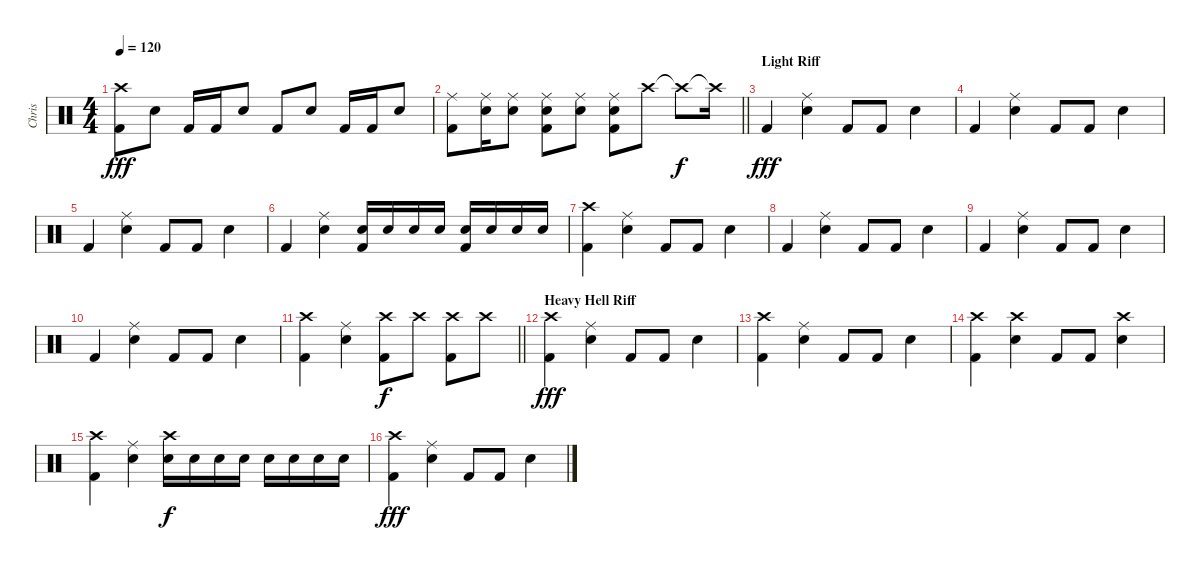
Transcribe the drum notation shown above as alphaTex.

\track ("Chris" "Chris") {instrument percussion}
\staff {score}
\articulation defaults
\ts (4 4)
\tempo 120
\clef neutral
\ks c
("Kick (hit) 2" "Crash high (hit)").8{dy fff} "Electric Snare (hit)".8 "Kick (hit) 2".16 "Kick (hit) 2".16 "Electric Snare (hit)".8 "Kick (hit) 2".8 "Electric Snare (hit)".8 "Kick (hit) 2".16 "Kick (hit) 2".16 "Electric Snare (hit)".8 |
\barLineRight lightlight
("Kick (hit) 2" "Ride (middle)").8 ("Electric Snare (hit)" "Ride (middle)").16 ("Electric Snare (hit)" "Ride (middle)").8 ("Electric Snare (hit)" "Ride (middle)" "Kick (hit) 2").8 ("Electric Snare (hit)" "Ride (middle)").8 ("Electric Snare (hit)" "Ride (middle)" "Kick (hit) 2").8 "Crash high (hit)".8 "Crash high (hit)"{t}.8{dy f} "Crash high (hit)"{t}.16 |
\section ("" "Light Riff")
"Kick (hit) 2".4{dy fff} ("Ride (middle)" "Electric Snare (hit)").4 "Kick (hit) 2".8 "Kick (hit) 2".8 "Electric Snare (hit)".4 |
"Kick (hit) 2".4 ("Ride (middle)" "Electric Snare (hit)").4 "Kick (hit) 2".8 "Kick (hit) 2".8 "Electric Snare (hit)".4 |
"Kick (hit) 2".4 ("Ride (middle)" "Electric Snare (hit)").4 "Kick (hit) 2".8 "Kick (hit) 2".8 "Electric Snare (hit)".4 |
"Kick (hit) 2".4 ("Ride (middle)" "Electric Snare (hit)").4 ("Kick (hit) 2" "Electric Snare (hit)").16 "Electric Snare (hit)".16 "Electric Snare (hit)".16 "Electric Snare (hit)".16 ("Electric Snare (hit)" "Kick (hit) 2").16 "Electric Snare (hit)".16 "Electric Snare (hit)".16 "Electric Snare (hit)".16 |
("Crash high (hit)" "Kick (hit) 2").4 ("Ride (middle)" "Electric Snare (hit)").4 "Kick (hit) 2".8 "Kick (hit) 2".8 "Electric Snare (hit)".4 |
"Kick (hit) 2".4 ("Ride (middle)" "Electric Snare (hit)").4 "Kick (hit) 2".8 "Kick (hit) 2".8 "Electric Snare (hit)".4 |
"Kick (hit) 2".4 ("Ride (middle)" "Electric Snare (hit)").4 "Kick (hit) 2".8 "Kick (hit) 2".8 "Electric Snare (hit)".4 |
"Kick (hit) 2".4 ("Ride (middle)" "Electric Snare (hit)").4 "Kick (hit) 2".8 "Kick (hit) 2".8 "Electric Snare (hit)".4 |
\barLineRight lightlight
("Crash high (hit)" "Kick (hit) 2").4 ("Ride (middle)" "Electric Snare (hit)").4 ("Crash high (hit)" "Kick (hit) 2").8{dy f} "Crash high (hit)".8 ("Crash high (hit)" "Kick (hit) 2").8 "Crash high (hit)".8 |
\section ("" "Heavy Hell Riff")
("Crash high (hit)" "Kick (hit) 2").4{dy fff} ("Ride (middle)" "Electric Snare (hit)").4 "Kick (hit) 2".8 "Kick (hit) 2".8 "Electric Snare (hit)".4 |
("Crash high (hit)" "Kick (hit) 2").4 ("Ride (middle)" "Electric Snare (hit)").4 "Kick (hit) 2".8 "Kick (hit) 2".8 "Electric Snare (hit)".4 |
("Crash high (hit)" "Kick (hit) 2").4 ("Crash high (hit)" "Electric Snare (hit)").4 "Kick (hit) 2".8 "Kick (hit) 2".8 ("Electric Snare (hit)" "Crash high (hit)").4 |
("Crash high (hit)" "Kick (hit) 2").4 ("Ride (middle)" "Electric Snare (hit)").4 ("Electric Snare (hit)" "Crash high (hit)").16{dy f} "Electric Snare (hit)".16 "Electric Snare (hit)".16 "Electric Snare (hit)".16 "Electric Snare (hit)".16 "Electric Snare (hit)".16 "Electric Snare (hit)".16 "Electric Snare (hit)".16 |
("Crash high (hit)" "Kick (hit) 2").4{dy fff} ("Ride (middle)" "Electric Snare (hit)").4 "Kick (hit) 2".8 "Kick (hit) 2".8 "Electric Snare (hit)".4
